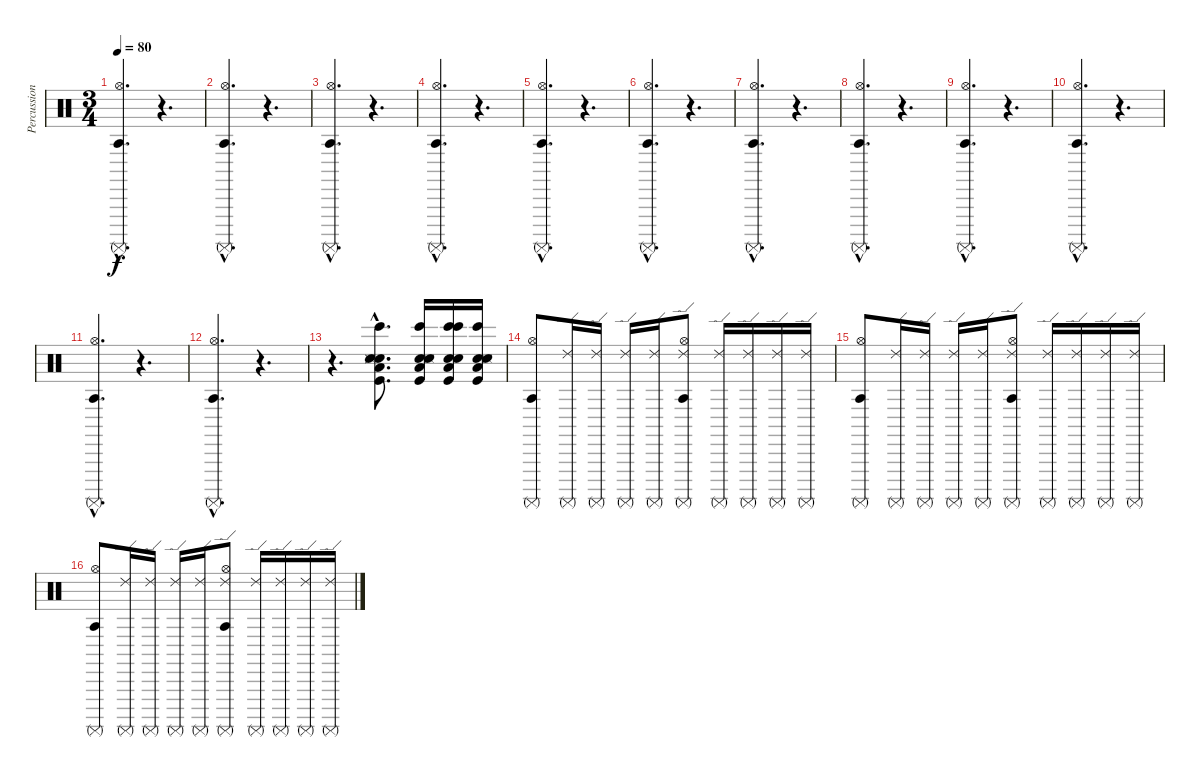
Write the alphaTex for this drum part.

\track ("Percussion" "Percussion") {instrument percussion}
\staff {score}
\articulation defaults
\ts (3 4)
\tempo 80
\clef neutral
\ks c
("Surdo (mute)"{hac} "Hi-Hat (open)"{hac} "Agogo tow (hit)"{hac}).4{d dy f} r.4{d} |
("Surdo (mute)"{hac} "Hi-Hat (open)"{hac} "Agogo tow (hit)"{hac}).4{d} r.4{d} |
("Surdo (mute)"{hac} "Hi-Hat (open)"{hac} "Agogo tow (hit)"{hac}).4{d} r.4{d} |
("Surdo (mute)"{hac} "Hi-Hat (open)"{hac} "Agogo tow (hit)"{hac}).4{d} r.4{d} |
("Surdo (mute)"{hac} "Hi-Hat (open)"{hac} "Agogo tow (hit)"{hac}).4{d} r.4{d} |
("Surdo (mute)"{hac} "Hi-Hat (open)"{hac} "Agogo tow (hit)"{hac}).4{d} r.4{d} |
("Surdo (mute)"{hac} "Hi-Hat (open)"{hac} "Agogo tow (hit)"{hac}).4{d} r.4{d} |
("Surdo (mute)"{hac} "Hi-Hat (open)"{hac} "Agogo tow (hit)"{hac}).4{d} r.4{d} |
("Surdo (mute)"{hac} "Hi-Hat (open)"{hac} "Agogo tow (hit)"{hac}).4{d} r.4{d} |
("Surdo (mute)"{hac} "Hi-Hat (open)"{hac} "Agogo tow (hit)"{hac}).4{d} r.4{d} |
("Surdo (mute)"{hac} "Hi-Hat (open)"{hac} "Agogo tow (hit)"{hac}).4{d} r.4{d} |
("Surdo (mute)"{hac} "Hi-Hat (open)"{hac} "Agogo tow (hit)"{hac}).4{d} r.4{d} |
r.4{d} ("Low Tom (hit)"{hac} "Electric Snare (hit)"{hac} "Bongo High (hit)"{hac} "Kick (hit)"{hac} "Electric Snare (hit)"{hac} "Snare (side stick) 3"{hac}).8{d} ("Low Tom (hit)" "Electric Snare (hit)" "Bongo High (hit)" "Kick (hit)" "Electric Snare (hit)" "Snare (side stick) 3").16 ("Low Tom (hit)" "Electric Snare (hit)" "Bongo High (hit)" "Kick (hit)" "Electric Snare (hit)" "Bongo High (hit)").16 ("Low Tom (hit)" "Electric Snare (hit)" "Bongo High (hit)" "Kick (hit)" "Electric Snare (hit)" "Snare (side stick) 3").16 |
("Surdo (mute)" "Hi-Hat (open)" "Agogo tow (hit)").8 ("Surdo (mute)" "Ride (edge) 2").16 ("Surdo (mute)" "Ride (edge) 2").16 ("Surdo (mute)" "Ride (edge) 2").16 ("Surdo (mute)" "Ride (edge) 2").16 ("Surdo (mute)" "Hi-Hat (open)" "Agogo tow (hit)" "Ride (edge) 2").8 ("Surdo (mute)" "Ride (edge) 2").16 ("Surdo (mute)" "Ride (edge) 2").16 ("Surdo (mute)" "Ride (edge) 2").16 ("Surdo (mute)" "Ride (edge) 2").16 |
("Surdo (mute)" "Hi-Hat (open)" "Agogo tow (hit)").8 ("Surdo (mute)" "Ride (edge) 2").16 ("Surdo (mute)" "Ride (edge) 2").16 ("Surdo (mute)" "Ride (edge) 2").16 ("Surdo (mute)" "Ride (edge) 2").16 ("Surdo (mute)" "Hi-Hat (open)" "Agogo tow (hit)" "Ride (edge) 2").8 ("Surdo (mute)" "Ride (edge) 2").16 ("Surdo (mute)" "Ride (edge) 2").16 ("Surdo (mute)" "Ride (edge) 2").16 ("Surdo (mute)" "Ride (edge) 2").16 |
("Surdo (mute)" "Hi-Hat (open)" "Agogo tow (hit)").8 ("Surdo (mute)" "Ride (edge) 2").16 ("Surdo (mute)" "Ride (edge) 2").16 ("Surdo (mute)" "Ride (edge) 2").16 ("Surdo (mute)" "Ride (edge) 2").16 ("Surdo (mute)" "Hi-Hat (open)" "Agogo tow (hit)" "Ride (edge) 2").8 ("Surdo (mute)" "Ride (edge) 2").16 ("Surdo (mute)" "Ride (edge) 2").16 ("Surdo (mute)" "Ride (edge) 2").16 ("Surdo (mute)" "Ride (edge) 2").16
